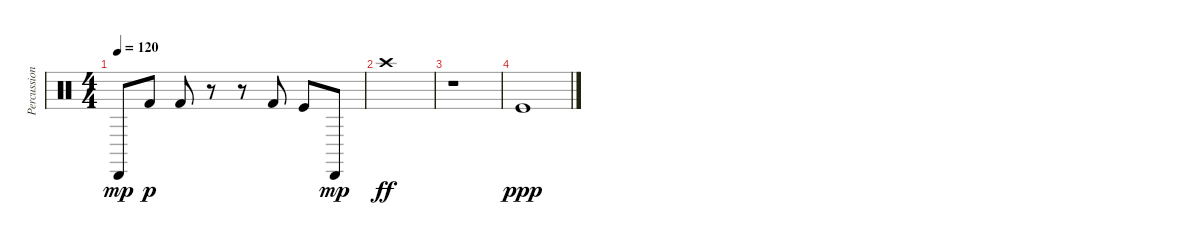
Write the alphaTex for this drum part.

\track ("Percussions" "Percussion") {instrument percussion}
\staff {score}
\articulation defaults
\ts (4 4)
\tempo 120
\clef neutral
\ks c "Cabasa (hit)".8{dy mp} "Kick (hit) 2".8{dy p} "Kick (hit) 2".8
r.8 r.8 "Kick (hit) 2".8 "Kick (hit)".8 "Cabasa (hit)".8{dy mp} |
"Crash high (hit)".1{dy ff} |
r.1 |
"Kick (hit)".1{dy ppp}
